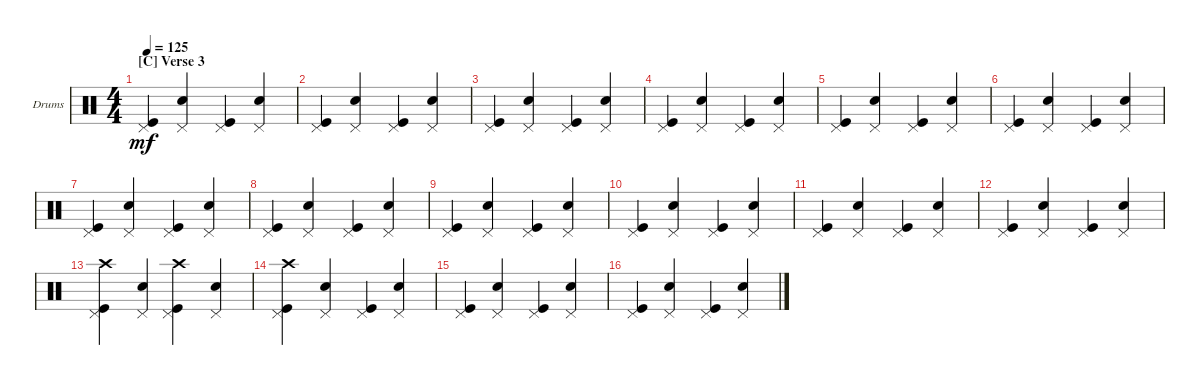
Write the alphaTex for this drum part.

\defaultSystemsLayout 4
\bracketExtendMode groupsimilarinstruments
\firstSystemTrackNameOrientation horizontal
\otherSystemsTrackNameOrientation horizontal
\track ("Drumkit" "Drums") {instrument percussion}
\staff {score}
\articulation defaults
\ts (4 4)
\section ("C" "Verse 3")
\tempo 125
\clef neutral
\ks c
("Kick (hit)" "Pedal Hi-Hat (hit)").4{dy mf} ("Snare (hit) 2" "Pedal Hi-Hat (hit)").4 ("Kick (hit)" "Pedal Hi-Hat (hit)").4 ("Snare (hit) 2" "Pedal Hi-Hat (hit)").4 |
("Kick (hit)" "Pedal Hi-Hat (hit)").4 ("Snare (hit) 2" "Pedal Hi-Hat (hit)").4 ("Kick (hit)" "Pedal Hi-Hat (hit)").4 ("Snare (hit) 2" "Pedal Hi-Hat (hit)").4 |
("Kick (hit)" "Pedal Hi-Hat (hit)").4 ("Snare (hit) 2" "Pedal Hi-Hat (hit)").4 ("Kick (hit)" "Pedal Hi-Hat (hit)").4 ("Snare (hit) 2" "Pedal Hi-Hat (hit)").4 |
("Kick (hit)" "Pedal Hi-Hat (hit)").4 ("Snare (hit) 2" "Pedal Hi-Hat (hit)").4 ("Kick (hit)" "Pedal Hi-Hat (hit)").4 ("Snare (hit) 2" "Pedal Hi-Hat (hit)").4 |
("Kick (hit)" "Pedal Hi-Hat (hit)").4 ("Snare (hit) 2" "Pedal Hi-Hat (hit)").4 ("Kick (hit)" "Pedal Hi-Hat (hit)").4 ("Snare (hit) 2" "Pedal Hi-Hat (hit)").4 |
("Kick (hit)" "Pedal Hi-Hat (hit)").4 ("Snare (hit) 2" "Pedal Hi-Hat (hit)").4 ("Kick (hit)" "Pedal Hi-Hat (hit)").4 ("Snare (hit) 2" "Pedal Hi-Hat (hit)").4 |
("Kick (hit)" "Pedal Hi-Hat (hit)").4 ("Snare (hit) 2" "Pedal Hi-Hat (hit)").4 ("Kick (hit)" "Pedal Hi-Hat (hit)").4 ("Snare (hit) 2" "Pedal Hi-Hat (hit)").4 |
("Kick (hit)" "Pedal Hi-Hat (hit)").4 ("Snare (hit) 2" "Pedal Hi-Hat (hit)").4 ("Kick (hit)" "Pedal Hi-Hat (hit)").4 ("Snare (hit) 2" "Pedal Hi-Hat (hit)").4 |
("Kick (hit)" "Pedal Hi-Hat (hit)").4 ("Snare (hit) 2" "Pedal Hi-Hat (hit)").4 ("Kick (hit)" "Pedal Hi-Hat (hit)").4 ("Snare (hit) 2" "Pedal Hi-Hat (hit)").4 |
("Kick (hit)" "Pedal Hi-Hat (hit)").4 ("Snare (hit) 2" "Pedal Hi-Hat (hit)").4 ("Kick (hit)" "Pedal Hi-Hat (hit)").4 ("Snare (hit) 2" "Pedal Hi-Hat (hit)").4 |
("Kick (hit)" "Pedal Hi-Hat (hit)").4 ("Snare (hit) 2" "Pedal Hi-Hat (hit)").4 ("Kick (hit)" "Pedal Hi-Hat (hit)").4 ("Snare (hit) 2" "Pedal Hi-Hat (hit)").4 |
("Kick (hit)" "Pedal Hi-Hat (hit)").4 ("Snare (hit) 2" "Pedal Hi-Hat (hit)").4 ("Kick (hit)" "Pedal Hi-Hat (hit)").4 ("Snare (hit) 2" "Pedal Hi-Hat (hit)").4 |
("Kick (hit)" "Crash high (hit)" "Pedal Hi-Hat (hit)").4 ("Snare (hit) 2" "Pedal Hi-Hat (hit)").4 ("Kick (hit)" "Crash high (hit)" "Pedal Hi-Hat (hit)").4 ("Snare (hit) 2" "Pedal Hi-Hat (hit)").4 |
("Kick (hit)" "Crash high (hit)" "Pedal Hi-Hat (hit)").4 ("Snare (hit) 2" "Pedal Hi-Hat (hit)").4 ("Kick (hit)" "Pedal Hi-Hat (hit)").4 ("Snare (hit) 2" "Pedal Hi-Hat (hit)").4 |
("Kick (hit)" "Pedal Hi-Hat (hit)").4 ("Snare (hit) 2" "Pedal Hi-Hat (hit)").4 ("Kick (hit)" "Pedal Hi-Hat (hit)").4 ("Snare (hit) 2" "Pedal Hi-Hat (hit)").4 |
("Kick (hit)" "Pedal Hi-Hat (hit)").4 ("Snare (hit) 2" "Pedal Hi-Hat (hit)").4 ("Kick (hit)" "Pedal Hi-Hat (hit)").4 ("Snare (hit) 2" "Pedal Hi-Hat (hit)").4
